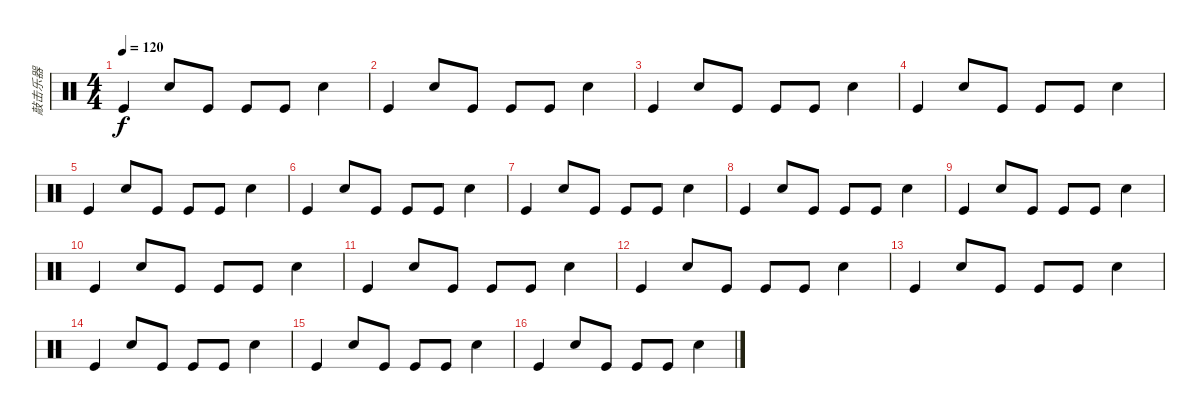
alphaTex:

\track ("敲击乐器" "敲击乐器") {instrument percussion}
\staff {score}
\articulation defaults
\ts (4 4)
\tempo 120
\clef neutral
\ks c "Kick (hit)".4{dy f} "Snare (hit) 2".8 "Kick (hit)".8 "Kick (hit)".8 "Kick (hit)".8 "Snare (hit) 2".4
|
"Kick (hit)".4 "Snare (hit) 2".8 "Kick (hit)".8 "Kick (hit)".8 "Kick (hit)".8 "Snare (hit) 2".4 |
"Kick (hit)".4 "Snare (hit) 2".8 "Kick (hit)".8 "Kick (hit)".8 "Kick (hit)".8 "Snare (hit) 2".4 |
"Kick (hit)".4 "Snare (hit) 2".8 "Kick (hit)".8 "Kick (hit)".8 "Kick (hit)".8 "Snare (hit) 2".4 |
"Kick (hit)".4 "Snare (hit) 2".8 "Kick (hit)".8 "Kick (hit)".8 "Kick (hit)".8 "Snare (hit) 2".4 |
"Kick (hit)".4 "Snare (hit) 2".8 "Kick (hit)".8 "Kick (hit)".8 "Kick (hit)".8 "Snare (hit) 2".4 |
"Kick (hit)".4 "Snare (hit) 2".8 "Kick (hit)".8 "Kick (hit)".8 "Kick (hit)".8 "Snare (hit) 2".4 |
"Kick (hit)".4 "Snare (hit) 2".8 "Kick (hit)".8 "Kick (hit)".8 "Kick (hit)".8 "Snare (hit) 2".4 |
"Kick (hit)".4 "Snare (hit) 2".8 "Kick (hit)".8 "Kick (hit)".8 "Kick (hit)".8 "Snare (hit) 2".4 |
"Kick (hit)".4 "Snare (hit) 2".8 "Kick (hit)".8 "Kick (hit)".8 "Kick (hit)".8 "Snare (hit) 2".4 |
"Kick (hit)".4 "Snare (hit) 2".8 "Kick (hit)".8 "Kick (hit)".8 "Kick (hit)".8 "Snare (hit) 2".4 |
"Kick (hit)".4 "Snare (hit) 2".8 "Kick (hit)".8 "Kick (hit)".8 "Kick (hit)".8 "Snare (hit) 2".4 |
"Kick (hit)".4 "Snare (hit) 2".8 "Kick (hit)".8 "Kick (hit)".8 "Kick (hit)".8 "Snare (hit) 2".4 |
"Kick (hit)".4 "Snare (hit) 2".8 "Kick (hit)".8 "Kick (hit)".8 "Kick (hit)".8 "Snare (hit) 2".4 |
"Kick (hit)".4 "Snare (hit) 2".8 "Kick (hit)".8 "Kick (hit)".8 "Kick (hit)".8 "Snare (hit) 2".4 |
"Kick (hit)".4 "Snare (hit) 2".8 "Kick (hit)".8 "Kick (hit)".8 "Kick (hit)".8 "Snare (hit) 2".4
